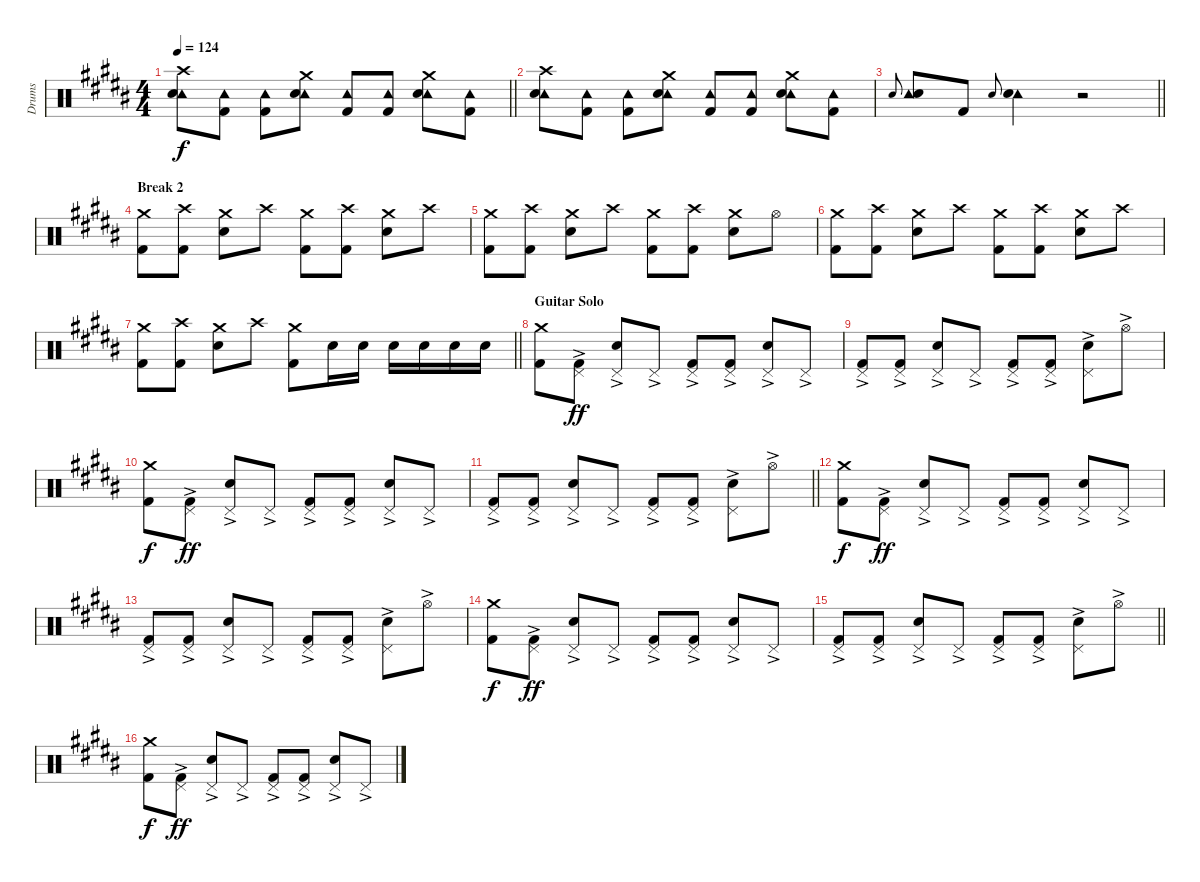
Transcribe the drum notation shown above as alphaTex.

\track ("Drums" "Drums") {instrument percussion}
\staff {score}
\articulation defaults
\ts (4 4)
\tempo 124
\clef neutral
\barLineRight lightlight
\ks b
("Crash high (hit)" "Tambourine (hit)" "Snare (hit) 2").8{dy f} ("Tambourine (hit)" "Kick (hit) 2").8 ("Tambourine (hit)" "Kick (hit) 2").8 ("Crash medium (hit)" "Tambourine (hit)" "Snare (hit) 2").8 ("Tambourine (hit)" "Kick (hit) 2").8 ("Tambourine (hit)" "Kick (hit) 2").8 ("Crash medium (hit)" "Tambourine (hit)" "Snare (hit) 2").8 ("Tambourine (hit)" "Kick (hit) 2").8 |
("Crash high (hit)" "Tambourine (hit)" "Snare (hit) 2").8 ("Tambourine (hit)" "Kick (hit) 2").8 ("Tambourine (hit)" "Kick (hit) 2").8 ("Crash medium (hit)" "Tambourine (hit)" "Snare (hit) 2").8 ("Tambourine (hit)" "Kick (hit) 2").8 ("Tambourine (hit)" "Kick (hit) 2").8 ("Crash medium (hit)" "Tambourine (hit)" "Snare (hit) 2").8 ("Tambourine (hit)" "Kick (hit) 2").8 |
\barLineRight lightlight "Snare (hit) 2".8{gr onbeat}
("Tambourine (hit)" "Snare (hit) 2").8 "Kick (hit) 2".8 "Snare (hit) 2".8{gr onbeat} ("Tambourine (hit)" "Snare (hit) 2").4 r.2 |
\section ("" "Break 2")
("Crash medium (hit)" "Kick (hit) 2").8 ("Crash high (hit)" "Kick (hit) 2").8 ("Crash medium (hit)" "Snare (hit) 2").8 "Crash high (hit)".8 ("Crash medium (hit)" "Kick (hit) 2").8 ("Crash high (hit)" "Kick (hit) 2").8 ("Crash medium (hit)" "Snare (hit) 2").8 "Crash high (hit)".8 |
("Crash medium (hit)" "Kick (hit) 2").8 ("Crash high (hit)" "Kick (hit) 2").8 ("Crash medium (hit)" "Snare (hit) 2").8 "Crash high (hit)".8 ("Crash medium (hit)" "Kick (hit) 2").8 ("Crash high (hit)" "Kick (hit) 2").8 ("Crash medium (hit)" "Snare (hit) 2").8 "Hi-Hat (open)".8 |
("Crash medium (hit)" "Kick (hit) 2").8 ("Crash high (hit)" "Kick (hit) 2").8 ("Crash medium (hit)" "Snare (hit) 2").8 "Crash high (hit)".8 ("Crash medium (hit)" "Kick (hit) 2").8 ("Crash high (hit)" "Kick (hit) 2").8 ("Crash medium (hit)" "Snare (hit) 2").8 "Crash high (hit)".8 |
\barLineRight lightlight
("Crash medium (hit)" "Kick (hit) 2").8 ("Crash high (hit)" "Kick (hit) 2").8 ("Crash medium (hit)" "Snare (hit) 2").8 "Crash high (hit)".8 ("Crash medium (hit)" "Kick (hit) 2").8 "Snare (hit) 2".16 "Snare (hit) 2".16 "Snare (hit) 2".16 "Snare (hit) 2".16 "Snare (hit) 2".16 "Snare (hit) 2".16 |
\section ("" "Guitar Solo")
("Crash medium (hit)" "Kick (hit) 2").8 ("Pedal Hi-Hat (hit)"{ac} "Kick (hit) 2").8{dy ff} ("Pedal Hi-Hat (hit)"{ac} "Snare (hit) 2").8 "Pedal Hi-Hat (hit)"{ac}.8 ("Pedal Hi-Hat (hit)"{ac} "Kick (hit) 2").8 ("Pedal Hi-Hat (hit)"{ac} "Kick (hit) 2").8 ("Pedal Hi-Hat (hit)"{ac} "Snare (hit) 2").8 "Pedal Hi-Hat (hit)"{ac}.8 |
("Pedal Hi-Hat (hit)"{ac} "Kick (hit) 2").8 ("Pedal Hi-Hat (hit)"{ac} "Kick (hit) 2").8 ("Pedal Hi-Hat (hit)"{ac} "Snare (hit) 2").8 "Pedal Hi-Hat (hit)"{ac}.8 ("Pedal Hi-Hat (hit)"{ac} "Kick (hit) 2").8 ("Pedal Hi-Hat (hit)"{ac} "Kick (hit) 2").8 ("Pedal Hi-Hat (hit)"{ac} "Snare (hit) 2").8 "Hi-Hat (open)"{ac}.8 |
("Crash medium (hit)" "Kick (hit) 2").8{dy f} ("Pedal Hi-Hat (hit)"{ac} "Kick (hit) 2").8{dy ff} ("Pedal Hi-Hat (hit)"{ac} "Snare (hit) 2").8 "Pedal Hi-Hat (hit)"{ac}.8 ("Pedal Hi-Hat (hit)"{ac} "Kick (hit) 2").8 ("Pedal Hi-Hat (hit)"{ac} "Kick (hit) 2").8 ("Pedal Hi-Hat (hit)"{ac} "Snare (hit) 2").8 "Pedal Hi-Hat (hit)"{ac}.8 |
\barLineRight lightlight
("Pedal Hi-Hat (hit)"{ac} "Kick (hit) 2").8 ("Pedal Hi-Hat (hit)"{ac} "Kick (hit) 2").8 ("Pedal Hi-Hat (hit)"{ac} "Snare (hit) 2").8 "Pedal Hi-Hat (hit)"{ac}.8 ("Pedal Hi-Hat (hit)"{ac} "Kick (hit) 2").8 ("Pedal Hi-Hat (hit)"{ac} "Kick (hit) 2").8 ("Pedal Hi-Hat (hit)"{ac} "Snare (hit) 2").8 "Hi-Hat (open)"{ac}.8 |
("Crash medium (hit)" "Kick (hit) 2").8{dy f} ("Pedal Hi-Hat (hit)"{ac} "Kick (hit) 2").8{dy ff} ("Pedal Hi-Hat (hit)"{ac} "Snare (hit) 2").8 "Pedal Hi-Hat (hit)"{ac}.8 ("Pedal Hi-Hat (hit)"{ac} "Kick (hit) 2").8 ("Pedal Hi-Hat (hit)"{ac} "Kick (hit) 2").8 ("Pedal Hi-Hat (hit)"{ac} "Snare (hit) 2").8 "Pedal Hi-Hat (hit)"{ac}.8 |
("Pedal Hi-Hat (hit)"{ac} "Kick (hit) 2").8 ("Pedal Hi-Hat (hit)"{ac} "Kick (hit) 2").8 ("Pedal Hi-Hat (hit)"{ac} "Snare (hit) 2").8 "Pedal Hi-Hat (hit)"{ac}.8 ("Pedal Hi-Hat (hit)"{ac} "Kick (hit) 2").8 ("Pedal Hi-Hat (hit)"{ac} "Kick (hit) 2").8 ("Pedal Hi-Hat (hit)"{ac} "Snare (hit) 2").8 "Hi-Hat (open)"{ac}.8 |
("Crash medium (hit)" "Kick (hit) 2").8{dy f} ("Pedal Hi-Hat (hit)"{ac} "Kick (hit) 2").8{dy ff} ("Pedal Hi-Hat (hit)"{ac} "Snare (hit) 2").8 "Pedal Hi-Hat (hit)"{ac}.8 ("Pedal Hi-Hat (hit)"{ac} "Kick (hit) 2").8 ("Pedal Hi-Hat (hit)"{ac} "Kick (hit) 2").8 ("Pedal Hi-Hat (hit)"{ac} "Snare (hit) 2").8 "Pedal Hi-Hat (hit)"{ac}.8 |
\barLineRight lightlight
("Pedal Hi-Hat (hit)"{ac} "Kick (hit) 2").8 ("Pedal Hi-Hat (hit)"{ac} "Kick (hit) 2").8 ("Pedal Hi-Hat (hit)"{ac} "Snare (hit) 2").8 "Pedal Hi-Hat (hit)"{ac}.8 ("Pedal Hi-Hat (hit)"{ac} "Kick (hit) 2").8 ("Pedal Hi-Hat (hit)"{ac} "Kick (hit) 2").8 ("Pedal Hi-Hat (hit)"{ac} "Snare (hit) 2").8 "Hi-Hat (open)"{ac}.8 |
("Crash medium (hit)" "Kick (hit) 2").8{dy f} ("Pedal Hi-Hat (hit)"{ac} "Kick (hit) 2").8{dy ff} ("Pedal Hi-Hat (hit)"{ac} "Snare (hit) 2").8 "Pedal Hi-Hat (hit)"{ac}.8 ("Pedal Hi-Hat (hit)"{ac} "Kick (hit) 2").8 ("Pedal Hi-Hat (hit)"{ac} "Kick (hit) 2").8 ("Pedal Hi-Hat (hit)"{ac} "Snare (hit) 2").8 "Pedal Hi-Hat (hit)"{ac}.8
